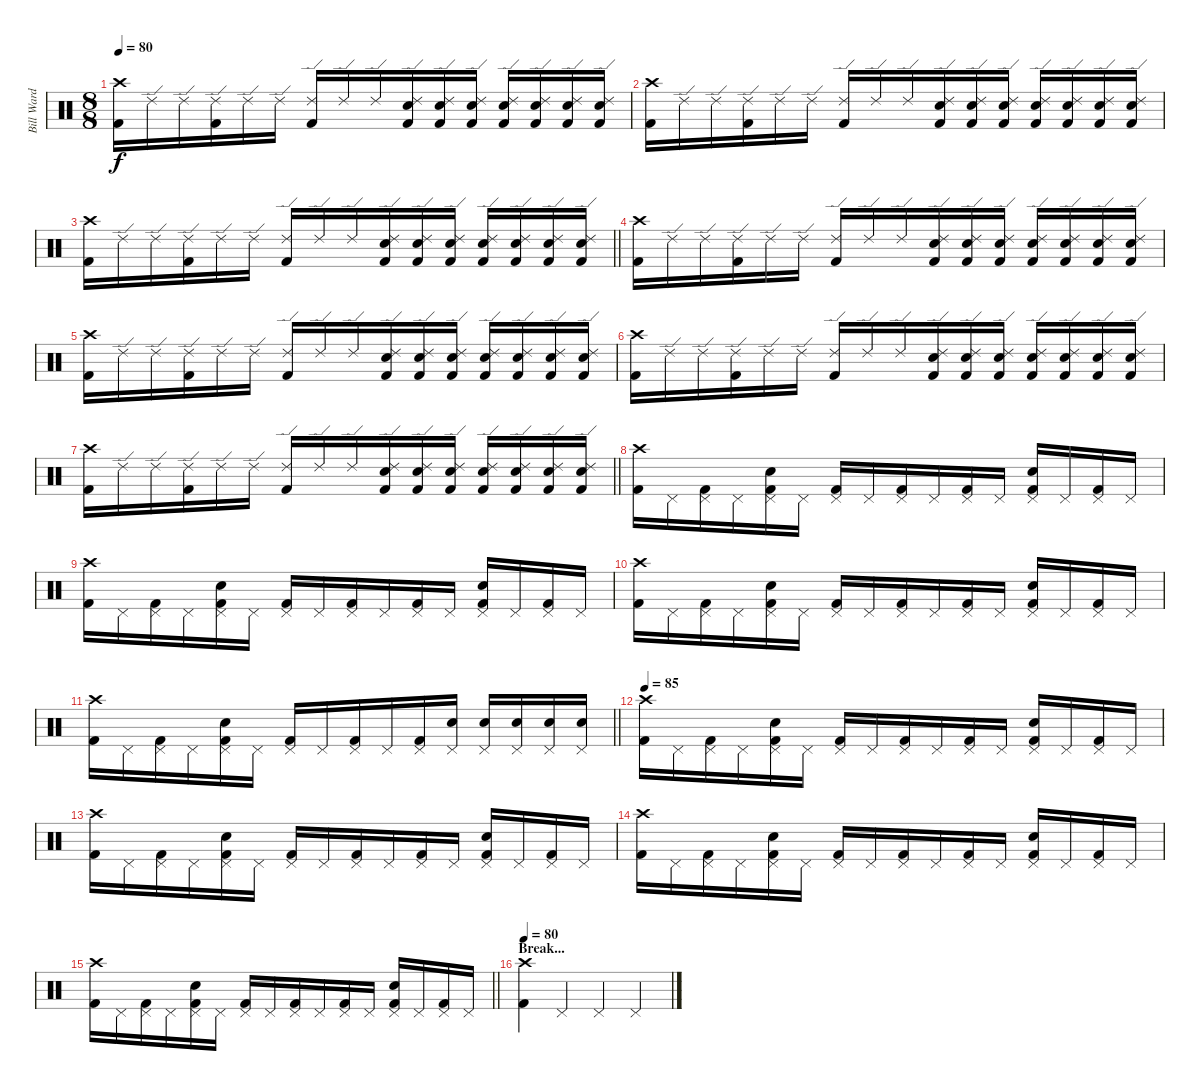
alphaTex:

\track ("Bill Ward (Drums)" "Bill Ward ") {instrument percussion}
\staff {score}
\articulation defaults
\ts (8 8)
\tempo 80
\clef neutral
\ks c
("Kick (hit) 2" "Crash high (hit)").16{dy f} "Ride (edge) 2".16 "Ride (edge) 2".16 ("Kick (hit) 2" "Ride (edge) 2").16 "Ride (edge) 2".16 "Ride (edge) 2".16 ("Kick (hit) 2" "Ride (edge) 2").16 "Ride (edge) 2".16 "Ride (edge) 2".16 ("Kick (hit) 2" "Snare (hit) 2" "Ride (edge) 2").16 ("Kick (hit) 2" "Snare (hit) 2" "Ride (edge) 2").16 ("Kick (hit) 2" "Snare (hit) 2" "Ride (edge) 2").16 ("Kick (hit) 2" "Snare (hit) 2" "Ride (edge) 2").16 ("Kick (hit) 2" "Snare (hit) 2" "Ride (edge) 2").16 ("Kick (hit) 2" "Snare (hit) 2" "Ride (edge) 2").16 ("Kick (hit) 2" "Snare (hit) 2" "Ride (edge) 2").16 |
("Kick (hit) 2" "Crash high (hit)").16 "Ride (edge) 2".16 "Ride (edge) 2".16 ("Kick (hit) 2" "Ride (edge) 2").16 "Ride (edge) 2".16 "Ride (edge) 2".16 ("Kick (hit) 2" "Ride (edge) 2").16 "Ride (edge) 2".16 "Ride (edge) 2".16 ("Kick (hit) 2" "Snare (hit) 2" "Ride (edge) 2").16 ("Kick (hit) 2" "Snare (hit) 2" "Ride (edge) 2").16 ("Kick (hit) 2" "Snare (hit) 2" "Ride (edge) 2").16 ("Kick (hit) 2" "Snare (hit) 2" "Ride (edge) 2").16 ("Kick (hit) 2" "Snare (hit) 2" "Ride (edge) 2").16 ("Kick (hit) 2" "Snare (hit) 2" "Ride (edge) 2").16 ("Kick (hit) 2" "Snare (hit) 2" "Ride (edge) 2").16 |
\barLineRight lightlight
("Kick (hit) 2" "Crash high (hit)").16 "Ride (edge) 2".16 "Ride (edge) 2".16 ("Kick (hit) 2" "Ride (edge) 2").16 "Ride (edge) 2".16 "Ride (edge) 2".16 ("Kick (hit) 2" "Ride (edge) 2").16 "Ride (edge) 2".16 "Ride (edge) 2".16 ("Kick (hit) 2" "Snare (hit) 2" "Ride (edge) 2").16 ("Kick (hit) 2" "Snare (hit) 2" "Ride (edge) 2").16 ("Kick (hit) 2" "Snare (hit) 2" "Ride (edge) 2").16 ("Kick (hit) 2" "Snare (hit) 2" "Ride (edge) 2").16 ("Kick (hit) 2" "Snare (hit) 2" "Ride (edge) 2").16 ("Kick (hit) 2" "Snare (hit) 2" "Ride (edge) 2").16 ("Kick (hit) 2" "Snare (hit) 2" "Ride (edge) 2").16 |
("Kick (hit) 2" "Crash high (hit)").16 "Ride (edge) 2".16 "Ride (edge) 2".16 ("Kick (hit) 2" "Ride (edge) 2").16 "Ride (edge) 2".16 "Ride (edge) 2".16 ("Kick (hit) 2" "Ride (edge) 2").16 "Ride (edge) 2".16 "Ride (edge) 2".16 ("Kick (hit) 2" "Snare (hit) 2" "Ride (edge) 2").16 ("Kick (hit) 2" "Snare (hit) 2" "Ride (edge) 2").16 ("Kick (hit) 2" "Snare (hit) 2" "Ride (edge) 2").16 ("Kick (hit) 2" "Snare (hit) 2" "Ride (edge) 2").16 ("Kick (hit) 2" "Snare (hit) 2" "Ride (edge) 2").16 ("Kick (hit) 2" "Snare (hit) 2" "Ride (edge) 2").16 ("Kick (hit) 2" "Snare (hit) 2" "Ride (edge) 2").16 |
("Kick (hit) 2" "Crash high (hit)").16 "Ride (edge) 2".16 "Ride (edge) 2".16 ("Kick (hit) 2" "Ride (edge) 2").16 "Ride (edge) 2".16 "Ride (edge) 2".16 ("Kick (hit) 2" "Ride (edge) 2").16 "Ride (edge) 2".16 "Ride (edge) 2".16 ("Kick (hit) 2" "Snare (hit) 2" "Ride (edge) 2").16 ("Kick (hit) 2" "Snare (hit) 2" "Ride (edge) 2").16 ("Kick (hit) 2" "Snare (hit) 2" "Ride (edge) 2").16 ("Kick (hit) 2" "Snare (hit) 2" "Ride (edge) 2").16 ("Kick (hit) 2" "Snare (hit) 2" "Ride (edge) 2").16 ("Kick (hit) 2" "Snare (hit) 2" "Ride (edge) 2").16 ("Kick (hit) 2" "Snare (hit) 2" "Ride (edge) 2").16 |
("Kick (hit) 2" "Crash high (hit)").16 "Ride (edge) 2".16 "Ride (edge) 2".16 ("Kick (hit) 2" "Ride (edge) 2").16 "Ride (edge) 2".16 "Ride (edge) 2".16 ("Kick (hit) 2" "Ride (edge) 2").16 "Ride (edge) 2".16 "Ride (edge) 2".16 ("Kick (hit) 2" "Snare (hit) 2" "Ride (edge) 2").16 ("Kick (hit) 2" "Snare (hit) 2" "Ride (edge) 2").16 ("Kick (hit) 2" "Snare (hit) 2" "Ride (edge) 2").16 ("Kick (hit) 2" "Snare (hit) 2" "Ride (edge) 2").16 ("Kick (hit) 2" "Snare (hit) 2" "Ride (edge) 2").16 ("Kick (hit) 2" "Snare (hit) 2" "Ride (edge) 2").16 ("Kick (hit) 2" "Snare (hit) 2" "Ride (edge) 2").16 |
\barLineRight lightlight
("Kick (hit) 2" "Crash high (hit)").16 "Ride (edge) 2".16 "Ride (edge) 2".16 ("Kick (hit) 2" "Ride (edge) 2").16 "Ride (edge) 2".16 "Ride (edge) 2".16 ("Kick (hit) 2" "Ride (edge) 2").16 "Ride (edge) 2".16 "Ride (edge) 2".16 ("Kick (hit) 2" "Snare (hit) 2" "Ride (edge) 2").16 ("Kick (hit) 2" "Snare (hit) 2" "Ride (edge) 2").16 ("Kick (hit) 2" "Snare (hit) 2" "Ride (edge) 2").16 ("Kick (hit) 2" "Snare (hit) 2" "Ride (edge) 2").16 ("Kick (hit) 2" "Snare (hit) 2" "Ride (edge) 2").16 ("Kick (hit) 2" "Snare (hit) 2" "Ride (edge) 2").16 ("Kick (hit) 2" "Snare (hit) 2" "Ride (edge) 2").16 |
("Kick (hit) 2" "Crash high (hit)").16 "Pedal Hi-Hat (hit)".16 ("Kick (hit) 2" "Pedal Hi-Hat (hit)").16 "Pedal Hi-Hat (hit)".16 ("Kick (hit) 2" "Snare (hit) 2" "Pedal Hi-Hat (hit)").16 "Pedal Hi-Hat (hit)".16 ("Kick (hit) 2" "Pedal Hi-Hat (hit)").16 "Pedal Hi-Hat (hit)".16 ("Kick (hit) 2" "Pedal Hi-Hat (hit)").16 "Pedal Hi-Hat (hit)".16 ("Kick (hit) 2" "Pedal Hi-Hat (hit)").16 "Pedal Hi-Hat (hit)".16 ("Kick (hit) 2" "Snare (hit) 2" "Pedal Hi-Hat (hit)").16 "Pedal Hi-Hat (hit)".16 ("Kick (hit) 2" "Pedal Hi-Hat (hit)").16 "Pedal Hi-Hat (hit)".16 |
("Kick (hit) 2" "Crash high (hit)").16 "Pedal Hi-Hat (hit)".16 ("Kick (hit) 2" "Pedal Hi-Hat (hit)").16 "Pedal Hi-Hat (hit)".16 ("Kick (hit) 2" "Snare (hit) 2" "Pedal Hi-Hat (hit)").16 "Pedal Hi-Hat (hit)".16 ("Kick (hit) 2" "Pedal Hi-Hat (hit)").16 "Pedal Hi-Hat (hit)".16 ("Kick (hit) 2" "Pedal Hi-Hat (hit)").16 "Pedal Hi-Hat (hit)".16 ("Kick (hit) 2" "Pedal Hi-Hat (hit)").16 "Pedal Hi-Hat (hit)".16 ("Kick (hit) 2" "Snare (hit) 2" "Pedal Hi-Hat (hit)").16 "Pedal Hi-Hat (hit)".16 ("Kick (hit) 2" "Pedal Hi-Hat (hit)").16 "Pedal Hi-Hat (hit)".16 |
("Kick (hit) 2" "Crash high (hit)").16 "Pedal Hi-Hat (hit)".16 ("Kick (hit) 2" "Pedal Hi-Hat (hit)").16 "Pedal Hi-Hat (hit)".16 ("Kick (hit) 2" "Snare (hit) 2" "Pedal Hi-Hat (hit)").16 "Pedal Hi-Hat (hit)".16 ("Kick (hit) 2" "Pedal Hi-Hat (hit)").16 "Pedal Hi-Hat (hit)".16 ("Kick (hit) 2" "Pedal Hi-Hat (hit)").16 "Pedal Hi-Hat (hit)".16 ("Kick (hit) 2" "Pedal Hi-Hat (hit)").16 "Pedal Hi-Hat (hit)".16 ("Kick (hit) 2" "Snare (hit) 2" "Pedal Hi-Hat (hit)").16 "Pedal Hi-Hat (hit)".16 ("Kick (hit) 2" "Pedal Hi-Hat (hit)").16 "Pedal Hi-Hat (hit)".16 |
\barLineRight lightlight
("Kick (hit) 2" "Crash high (hit)").16 "Pedal Hi-Hat (hit)".16 ("Kick (hit) 2" "Pedal Hi-Hat (hit)").16 "Pedal Hi-Hat (hit)".16 ("Kick (hit) 2" "Snare (hit) 2" "Pedal Hi-Hat (hit)").16 "Pedal Hi-Hat (hit)".16 ("Kick (hit) 2" "Pedal Hi-Hat (hit)").16 "Pedal Hi-Hat (hit)".16 ("Kick (hit) 2" "Pedal Hi-Hat (hit)").16 "Pedal Hi-Hat (hit)".16 ("Kick (hit) 2" "Pedal Hi-Hat (hit)").16 ("Snare (hit) 2" "Pedal Hi-Hat (hit)").16 ("Snare (hit) 2" "Pedal Hi-Hat (hit)").16 ("Snare (hit) 2" "Pedal Hi-Hat (hit)").16 ("Snare (hit) 2" "Pedal Hi-Hat (hit)").16 ("Snare (hit) 2" "Pedal Hi-Hat (hit)").16 |
\tempo 85
("Kick (hit) 2" "Crash high (hit)").16 "Pedal Hi-Hat (hit)".16 ("Kick (hit) 2" "Pedal Hi-Hat (hit)").16 "Pedal Hi-Hat (hit)".16 ("Kick (hit) 2" "Snare (hit) 2" "Pedal Hi-Hat (hit)").16 "Pedal Hi-Hat (hit)".16 ("Kick (hit) 2" "Pedal Hi-Hat (hit)").16 "Pedal Hi-Hat (hit)".16 ("Kick (hit) 2" "Pedal Hi-Hat (hit)").16 "Pedal Hi-Hat (hit)".16 ("Kick (hit) 2" "Pedal Hi-Hat (hit)").16 "Pedal Hi-Hat (hit)".16 ("Kick (hit) 2" "Snare (hit) 2" "Pedal Hi-Hat (hit)").16 "Pedal Hi-Hat (hit)".16 ("Kick (hit) 2" "Pedal Hi-Hat (hit)").16 "Pedal Hi-Hat (hit)".16 |
("Kick (hit) 2" "Crash high (hit)").16 "Pedal Hi-Hat (hit)".16 ("Kick (hit) 2" "Pedal Hi-Hat (hit)").16 "Pedal Hi-Hat (hit)".16 ("Kick (hit) 2" "Snare (hit) 2" "Pedal Hi-Hat (hit)").16 "Pedal Hi-Hat (hit)".16 ("Kick (hit) 2" "Pedal Hi-Hat (hit)").16 "Pedal Hi-Hat (hit)".16 ("Kick (hit) 2" "Pedal Hi-Hat (hit)").16 "Pedal Hi-Hat (hit)".16 ("Kick (hit) 2" "Pedal Hi-Hat (hit)").16 "Pedal Hi-Hat (hit)".16 ("Kick (hit) 2" "Snare (hit) 2" "Pedal Hi-Hat (hit)").16 "Pedal Hi-Hat (hit)".16 ("Kick (hit) 2" "Pedal Hi-Hat (hit)").16 "Pedal Hi-Hat (hit)".16 |
("Kick (hit) 2" "Crash high (hit)").16 "Pedal Hi-Hat (hit)".16 ("Kick (hit) 2" "Pedal Hi-Hat (hit)").16 "Pedal Hi-Hat (hit)".16 ("Kick (hit) 2" "Snare (hit) 2" "Pedal Hi-Hat (hit)").16 "Pedal Hi-Hat (hit)".16 ("Kick (hit) 2" "Pedal Hi-Hat (hit)").16 "Pedal Hi-Hat (hit)".16 ("Kick (hit) 2" "Pedal Hi-Hat (hit)").16 "Pedal Hi-Hat (hit)".16 ("Kick (hit) 2" "Pedal Hi-Hat (hit)").16 "Pedal Hi-Hat (hit)".16 ("Kick (hit) 2" "Snare (hit) 2" "Pedal Hi-Hat (hit)").16 "Pedal Hi-Hat (hit)".16 ("Kick (hit) 2" "Pedal Hi-Hat (hit)").16 "Pedal Hi-Hat (hit)".16 |
\barLineRight lightlight
("Kick (hit) 2" "Crash high (hit)").16 "Pedal Hi-Hat (hit)".16 ("Kick (hit) 2" "Pedal Hi-Hat (hit)").16 "Pedal Hi-Hat (hit)".16 ("Kick (hit) 2" "Snare (hit) 2" "Pedal Hi-Hat (hit)").16 "Pedal Hi-Hat (hit)".16 ("Kick (hit) 2" "Pedal Hi-Hat (hit)").16 "Pedal Hi-Hat (hit)".16 ("Kick (hit) 2" "Pedal Hi-Hat (hit)").16 "Pedal Hi-Hat (hit)".16 ("Kick (hit) 2" "Pedal Hi-Hat (hit)").16 "Pedal Hi-Hat (hit)".16 ("Kick (hit) 2" "Snare (hit) 2" "Pedal Hi-Hat (hit)").16 "Pedal Hi-Hat (hit)".16 ("Kick (hit) 2" "Pedal Hi-Hat (hit)").16 "Pedal Hi-Hat (hit)".16 |
\section ("" "Break...")
\tempo 80
("Kick (hit) 2" "Crash high (hit)").4 "Pedal Hi-Hat (hit)".4 "Pedal Hi-Hat (hit)".4 "Pedal Hi-Hat (hit)".4
